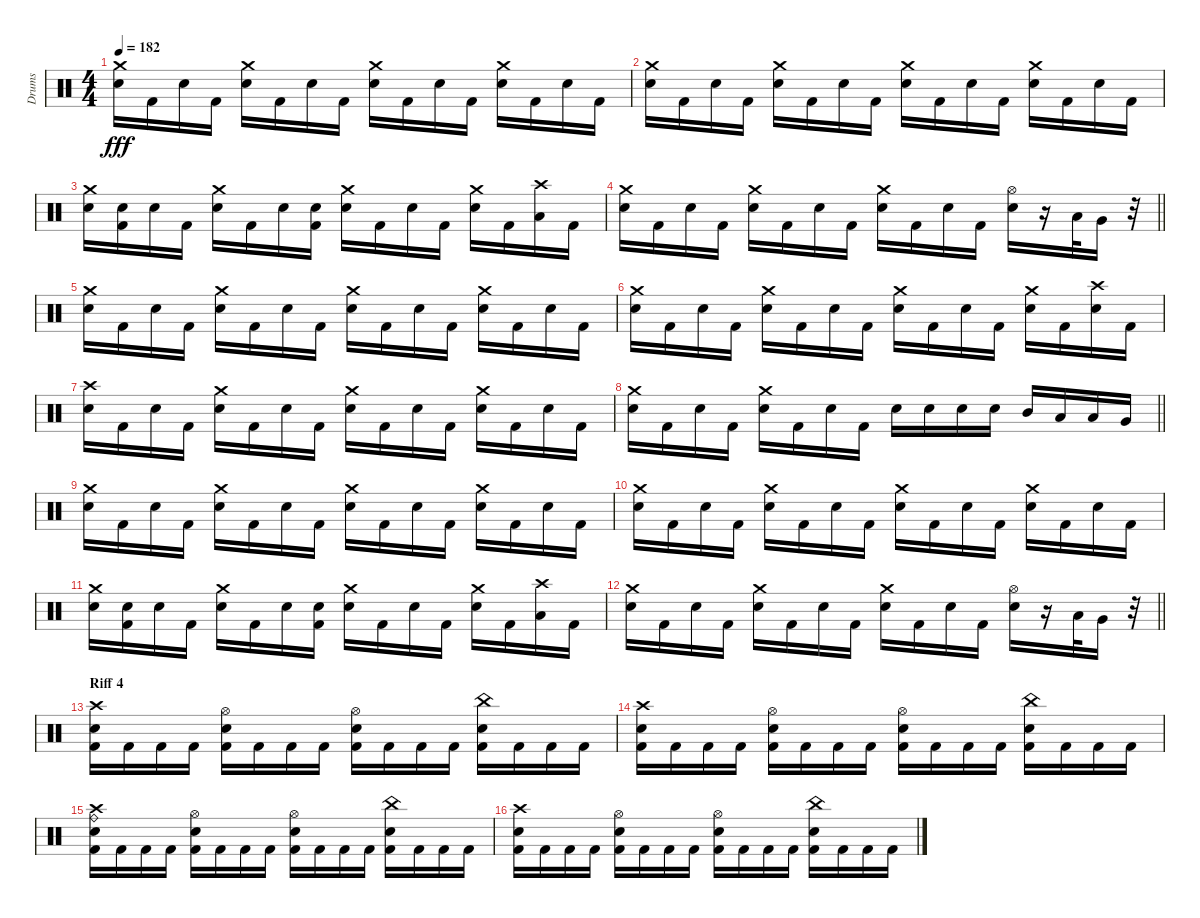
\track ("Drums" "Drums") {instrument percussion}
\staff {score}
\articulation defaults
\ts (4 4)
\tempo 182
\clef neutral
\ks c
("Crash medium (hit)" "Snare (hit) 2").16{dy fff} "Kick (hit) 2".16 "Snare (hit) 2".16 "Kick (hit) 2".16 ("Crash medium (hit)" "Snare (hit) 2").16 "Kick (hit) 2".16 "Snare (hit) 2".16 "Kick (hit) 2".16 ("Crash medium (hit)" "Snare (hit) 2").16 "Kick (hit) 2".16 "Snare (hit) 2".16 "Kick (hit) 2".16 ("Crash medium (hit)" "Snare (hit) 2").16 "Kick (hit) 2".16 "Snare (hit) 2".16 "Kick (hit) 2".16 |
("Crash medium (hit)" "Snare (hit) 2").16 "Kick (hit) 2".16 "Snare (hit) 2".16 "Kick (hit) 2".16 ("Crash medium (hit)" "Snare (hit) 2").16 "Kick (hit) 2".16 "Snare (hit) 2".16 "Kick (hit) 2".16 ("Crash medium (hit)" "Snare (hit) 2").16 "Kick (hit) 2".16 "Snare (hit) 2".16 "Kick (hit) 2".16 ("Crash medium (hit)" "Snare (hit) 2").16 "Kick (hit) 2".16 "Snare (hit) 2".16 "Kick (hit) 2".16 |
("Crash medium (hit)" "Snare (hit) 2").16 ("Kick (hit) 2" "Snare (hit) 2").16 "Snare (hit) 2".16 "Kick (hit) 2".16 ("Crash medium (hit)" "Snare (hit) 2").16 "Kick (hit) 2".16 "Snare (hit) 2".16 ("Kick (hit) 2" "Snare (hit) 2").16 ("Crash medium (hit)" "Snare (hit) 2").16 "Kick (hit) 2".16 "Snare (hit) 2".16 "Kick (hit) 2".16 ("Crash medium (hit)" "Snare (hit) 2").16 "Kick (hit) 2".16 ("Crash high (hit)" "Low Tom (hit)").16 "Kick (hit) 2".16 |
\barLineRight lightlight
("Crash medium (hit)" "Snare (hit) 2").16 "Kick (hit) 2".16 "Snare (hit) 2".16 "Kick (hit) 2".16 ("Crash medium (hit)" "Snare (hit) 2").16 "Kick (hit) 2".16 "Snare (hit) 2".16 "Kick (hit) 2".16 ("Crash medium (hit)" "Snare (hit) 2").16 "Kick (hit) 2".16 "Snare (hit) 2".16 "Kick (hit) 2".16 ("Hi-Hat (open)" "Snare (hit) 2").16 r.16 "Low Tom (hit)".32 "Very Low Tom (hit)".16 r.32 |
("Crash medium (hit)" "Snare (hit) 2").16 "Kick (hit) 2".16 "Snare (hit) 2".16 "Kick (hit) 2".16 ("Crash medium (hit)" "Snare (hit) 2").16 "Kick (hit) 2".16 "Snare (hit) 2".16 "Kick (hit) 2".16 ("Crash medium (hit)" "Snare (hit) 2").16 "Kick (hit) 2".16 "Snare (hit) 2".16 "Kick (hit) 2".16 ("Crash medium (hit)" "Snare (hit) 2").16 "Kick (hit) 2".16 "Snare (hit) 2".16 "Kick (hit) 2".16 |
("Crash medium (hit)" "Snare (hit) 2").16 "Kick (hit) 2".16 "Snare (hit) 2".16 "Kick (hit) 2".16 ("Crash medium (hit)" "Snare (hit) 2").16 "Kick (hit) 2".16 "Snare (hit) 2".16 "Kick (hit) 2".16 ("Crash medium (hit)" "Snare (hit) 2").16 "Kick (hit) 2".16 "Snare (hit) 2".16 "Kick (hit) 2".16 ("Crash medium (hit)" "Snare (hit) 2").16 "Kick (hit) 2".16 ("Crash high (hit)" "Snare (hit) 2").16 "Kick (hit) 2".16 |
("Crash high (hit)" "Snare (hit) 2").16 "Kick (hit) 2".16 "Snare (hit) 2".16 "Kick (hit) 2".16 ("Crash medium (hit)" "Snare (hit) 2").16 "Kick (hit) 2".16 "Snare (hit) 2".16 "Kick (hit) 2".16 ("Crash medium (hit)" "Snare (hit) 2").16 "Kick (hit) 2".16 "Snare (hit) 2".16 "Kick (hit) 2".16 ("Crash medium (hit)" "Snare (hit) 2").16 "Kick (hit) 2".16 "Snare (hit) 2".16 "Kick (hit) 2".16 |
\barLineRight lightlight
("Crash medium (hit)" "Snare (hit) 2").16 "Kick (hit) 2".16 "Snare (hit) 2".16 "Kick (hit) 2".16 ("Crash medium (hit)" "Snare (hit) 2").16 "Kick (hit) 2".16 "Snare (hit) 2".16 "Kick (hit) 2".16 "Snare (hit) 2".16 "Snare (hit) 2".16 "Snare (hit) 2".16 "Snare (hit) 2".16 "Mid Tom (hit)".16 "Low Tom (hit)".16 "Low Tom (hit)".16 "Very Low Tom (hit)".16 |
("Crash medium (hit)" "Snare (hit) 2").16 "Kick (hit) 2".16 "Snare (hit) 2".16 "Kick (hit) 2".16 ("Crash medium (hit)" "Snare (hit) 2").16 "Kick (hit) 2".16 "Snare (hit) 2".16 "Kick (hit) 2".16 ("Crash medium (hit)" "Snare (hit) 2").16 "Kick (hit) 2".16 "Snare (hit) 2".16 "Kick (hit) 2".16 ("Crash medium (hit)" "Snare (hit) 2").16 "Kick (hit) 2".16 "Snare (hit) 2".16 "Kick (hit) 2".16 |
("Crash medium (hit)" "Snare (hit) 2").16 "Kick (hit) 2".16 "Snare (hit) 2".16 "Kick (hit) 2".16 ("Crash medium (hit)" "Snare (hit) 2").16 "Kick (hit) 2".16 "Snare (hit) 2".16 "Kick (hit) 2".16 ("Crash medium (hit)" "Snare (hit) 2").16 "Kick (hit) 2".16 "Snare (hit) 2".16 "Kick (hit) 2".16 ("Crash medium (hit)" "Snare (hit) 2").16 "Kick (hit) 2".16 "Snare (hit) 2".16 "Kick (hit) 2".16 |
("Crash medium (hit)" "Snare (hit) 2").16 ("Kick (hit) 2" "Snare (hit) 2").16 "Snare (hit) 2".16 "Kick (hit) 2".16 ("Crash medium (hit)" "Snare (hit) 2").16 "Kick (hit) 2".16 "Snare (hit) 2".16 ("Kick (hit) 2" "Snare (hit) 2").16 ("Crash medium (hit)" "Snare (hit) 2").16 "Kick (hit) 2".16 "Snare (hit) 2".16 "Kick (hit) 2".16 ("Crash medium (hit)" "Snare (hit) 2").16 "Kick (hit) 2".16 ("Crash high (hit)" "Low Tom (hit)").16 "Kick (hit) 2".16 |
\barLineRight lightlight
("Crash medium (hit)" "Snare (hit) 2").16 "Kick (hit) 2".16 "Snare (hit) 2".16 "Kick (hit) 2".16 ("Crash medium (hit)" "Snare (hit) 2").16 "Kick (hit) 2".16 "Snare (hit) 2".16 "Kick (hit) 2".16 ("Crash medium (hit)" "Snare (hit) 2").16 "Kick (hit) 2".16 "Snare (hit) 2".16 "Kick (hit) 2".16 ("Hi-Hat (open)" "Snare (hit) 2").16 r.16 "Low Tom (hit)".32 "Very Low Tom (hit)".16 r.32 |
\section ("" "Riff 4")
("Crash high (hit)" "Kick (hit) 2" "Snare (hit) 2").16 "Kick (hit) 2".16 "Kick (hit) 2".16 "Kick (hit) 2".16 ("Hi-Hat (open)" "Kick (hit) 2" "Snare (hit) 2").16 "Kick (hit) 2".16 "Kick (hit) 2".16 "Kick (hit) 2".16 ("Hi-Hat (open)" "Kick (hit) 2" "Snare (hit) 2").16 "Kick (hit) 2".16 "Kick (hit) 2".16 "Kick (hit) 2".16 ("China (hit)" "Kick (hit) 2" "Snare (hit) 2").16 "Kick (hit) 2".16 "Kick (hit) 2".16 "Kick (hit) 2".16 |
("Crash high (hit)" "Kick (hit) 2" "Snare (hit) 2").16 "Kick (hit) 2".16 "Kick (hit) 2".16 "Kick (hit) 2".16 ("Hi-Hat (open)" "Kick (hit) 2" "Snare (hit) 2").16 "Kick (hit) 2".16 "Kick (hit) 2".16 "Kick (hit) 2".16 ("Hi-Hat (open)" "Kick (hit) 2" "Snare (hit) 2").16 "Kick (hit) 2".16 "Kick (hit) 2".16 "Kick (hit) 2".16 ("China (hit)" "Kick (hit) 2" "Snare (hit) 2").16 "Kick (hit) 2".16 "Kick (hit) 2".16 "Kick (hit) 2".16 |
("Crash high (hit)" "Kick (hit) 2" "Snare (hit) 2" "Ride (bell)").16 "Kick (hit) 2".16 "Kick (hit) 2".16 "Kick (hit) 2".16 ("Hi-Hat (open)" "Kick (hit) 2" "Snare (hit) 2").16 "Kick (hit) 2".16 "Kick (hit) 2".16 "Kick (hit) 2".16 ("Hi-Hat (open)" "Kick (hit) 2" "Snare (hit) 2").16 "Kick (hit) 2".16 "Kick (hit) 2".16 "Kick (hit) 2".16 ("China (hit)" "Kick (hit) 2" "Snare (hit) 2").16 "Kick (hit) 2".16 "Kick (hit) 2".16 "Kick (hit) 2".16 |
("Crash high (hit)" "Kick (hit) 2" "Snare (hit) 2").16 "Kick (hit) 2".16 "Kick (hit) 2".16 "Kick (hit) 2".16 ("Hi-Hat (open)" "Kick (hit) 2" "Snare (hit) 2").16 "Kick (hit) 2".16 "Kick (hit) 2".16 "Kick (hit) 2".16 ("Hi-Hat (open)" "Kick (hit) 2" "Snare (hit) 2").16 "Kick (hit) 2".16 "Kick (hit) 2".16 "Kick (hit) 2".16 ("China (hit)" "Kick (hit) 2" "Snare (hit) 2").16 "Kick (hit) 2".16 "Kick (hit) 2".16 "Kick (hit) 2".16
